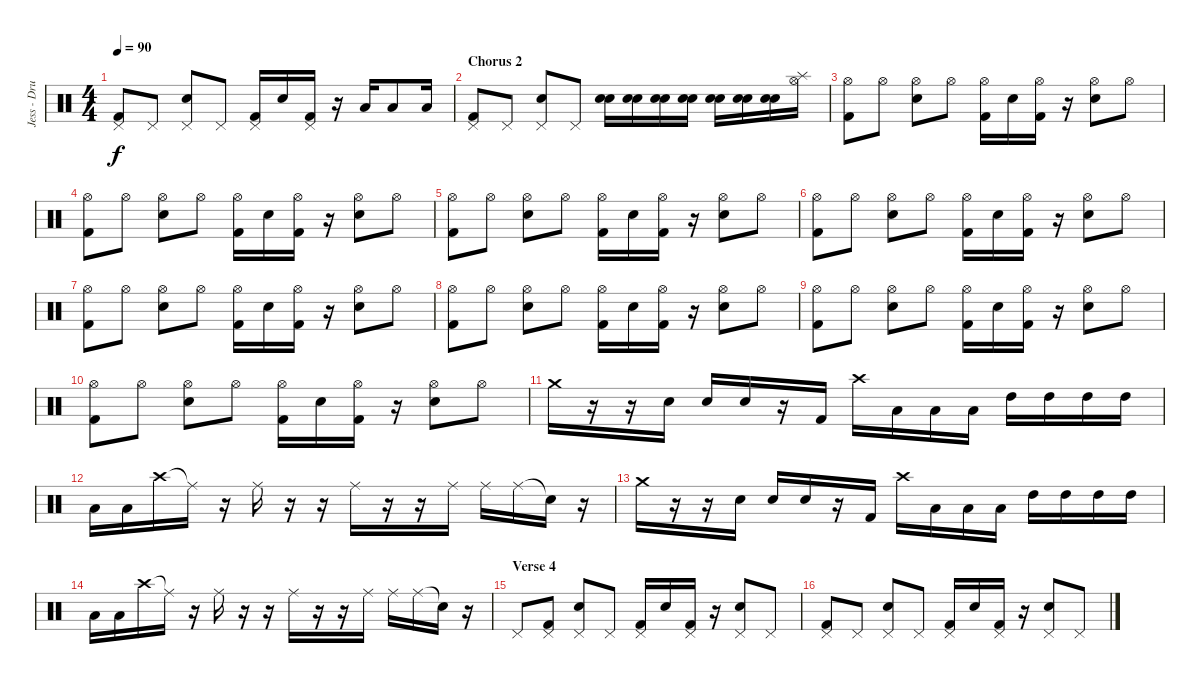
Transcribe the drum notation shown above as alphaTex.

\track ("Jess - Drums" "Jess - Dru") {instrument percussion}
\staff {score}
\articulation defaults
\ts (4 4)
\tempo 90
\clef neutral
\ks c
("Pedal Hi-Hat (hit)" "Kick (hit) 2").8{dy f} "Pedal Hi-Hat (hit)".8 ("Pedal Hi-Hat (hit)" "Electric Snare (hit)").8 "Pedal Hi-Hat (hit)".8 ("Pedal Hi-Hat (hit)" "Kick (hit) 2").16 "Electric Snare (hit)".16 ("Pedal Hi-Hat (hit)" "Kick (hit) 2").16 r.16 "Low Tom (hit)".16 "Low Tom (hit)".8 "Low Floor Tom (hit)".16 |
\section ("" "Chorus 2")
("Pedal Hi-Hat (hit)" "Kick (hit) 2").8 "Pedal Hi-Hat (hit)".8 ("Pedal Hi-Hat (hit)" "Electric Snare (hit)").8 "Pedal Hi-Hat (hit)".8 ("Snare (hit) 2" "Electric Snare (hit)").16 ("Snare (hit) 2" "Electric Snare (hit)").16 ("Snare (hit) 2" "Electric Snare (hit)").16 ("Snare (hit) 2" "Electric Snare (hit)").16 ("Snare (hit) 2" "Electric Snare (hit)").16 ("Snare (hit) 2" "Electric Snare (hit)").16 ("Snare (hit) 2" "Electric Snare (hit)").16 ("Splash (hit)" "Hi-Hat (open)").16 |
("Hi-Hat (open)" "Kick (hit) 2").8{volume 10} "Hi-Hat (open)".8 ("Hi-Hat (open)" "Electric Snare (hit)").8 "Hi-Hat (open)".8 ("Hi-Hat (open)" "Kick (hit) 2").16 "Electric Snare (hit)".16 ("Hi-Hat (open)" "Kick (hit) 2").16 r.16 ("Hi-Hat (open)" "Electric Snare (hit)").8 "Hi-Hat (open)".8 |
("Hi-Hat (open)" "Kick (hit) 2").8 "Hi-Hat (open)".8 ("Hi-Hat (open)" "Electric Snare (hit)").8 "Hi-Hat (open)".8 ("Hi-Hat (open)" "Kick (hit) 2").16 "Electric Snare (hit)".16 ("Hi-Hat (open)" "Kick (hit) 2").16 r.16 ("Hi-Hat (open)" "Electric Snare (hit)").8 "Hi-Hat (open)".8 |
("Hi-Hat (open)" "Kick (hit) 2").8 "Hi-Hat (open)".8 ("Hi-Hat (open)" "Electric Snare (hit)").8 "Hi-Hat (open)".8 ("Hi-Hat (open)" "Kick (hit) 2").16 "Electric Snare (hit)".16 ("Hi-Hat (open)" "Kick (hit) 2").16 r.16 ("Hi-Hat (open)" "Electric Snare (hit)").8 "Hi-Hat (open)".8 |
("Hi-Hat (open)" "Kick (hit) 2").8 "Hi-Hat (open)".8 ("Hi-Hat (open)" "Electric Snare (hit)").8 "Hi-Hat (open)".8 ("Hi-Hat (open)" "Kick (hit) 2").16 "Electric Snare (hit)".16 ("Hi-Hat (open)" "Kick (hit) 2").16 r.16 ("Hi-Hat (open)" "Electric Snare (hit)").8 "Hi-Hat (open)".8 |
("Hi-Hat (open)" "Kick (hit) 2").8 "Hi-Hat (open)".8 ("Hi-Hat (open)" "Electric Snare (hit)").8 "Hi-Hat (open)".8 ("Hi-Hat (open)" "Kick (hit) 2").16 "Electric Snare (hit)".16 ("Hi-Hat (open)" "Kick (hit) 2").16 r.16 ("Hi-Hat (open)" "Electric Snare (hit)").8 "Hi-Hat (open)".8 |
("Hi-Hat (open)" "Kick (hit) 2").8 "Hi-Hat (open)".8 ("Hi-Hat (open)" "Electric Snare (hit)").8 "Hi-Hat (open)".8 ("Hi-Hat (open)" "Kick (hit) 2").16 "Electric Snare (hit)".16 ("Hi-Hat (open)" "Kick (hit) 2").16 r.16 ("Hi-Hat (open)" "Electric Snare (hit)").8 "Hi-Hat (open)".8 |
("Hi-Hat (open)" "Kick (hit) 2").8 "Hi-Hat (open)".8 ("Hi-Hat (open)" "Electric Snare (hit)").8 "Hi-Hat (open)".8 ("Hi-Hat (open)" "Kick (hit) 2").16 "Electric Snare (hit)".16 ("Hi-Hat (open)" "Kick (hit) 2").16 r.16 ("Hi-Hat (open)" "Electric Snare (hit)").8 "Hi-Hat (open)".8 |
("Hi-Hat (open)" "Kick (hit) 2").8 "Hi-Hat (open)".8 ("Hi-Hat (open)" "Electric Snare (hit)").8 "Hi-Hat (open)".8 ("Hi-Hat (open)" "Kick (hit) 2").16 "Electric Snare (hit)".16 ("Hi-Hat (open)" "Kick (hit) 2").16 r.16 ("Hi-Hat (open)" "Electric Snare (hit)").8 "Hi-Hat (open)".8 |
"Crash medium (hit)".16 r.16 r.16 "Electric Snare (hit)".16 "Electric Snare (hit)".16 "Electric Snare (hit)".16 r.16 "Kick (hit) 2".16 "Crash high (hit)".16 "Low Tom (hit)".16 "Low Tom (hit)".16 "Low Tom (hit)".16 "High Tom (hit)".16 "High Tom (hit)".16 "High Tom (hit)".16 "High Tom (hit)".16 |
"Low Tom (hit)".16 "Low Tom (hit)".16 "Crash high (hit)".16 "Ride (middle)"{t}.16 r.16 "Ride (middle)".16 r.16 r.16 "Ride (middle)".16 r.16 r.16 "Ride (middle)".16 "Ride (middle)".16 "Ride (middle)".16 "Snare (hit)"{t}.16 r.16 |
"Crash medium (hit)".16 r.16 r.16 "Electric Snare (hit)".16 "Electric Snare (hit)".16 "Electric Snare (hit)".16 r.16 "Kick (hit) 2".16 "Crash high (hit)".16 "Low Tom (hit)".16 "Low Tom (hit)".16 "Low Tom (hit)".16 "High Tom (hit)".16 "High Tom (hit)".16 "High Tom (hit)".16 "High Tom (hit)".16 |
"Low Tom (hit)".16 "Low Tom (hit)".16 "Crash high (hit)".16 "Ride (middle)"{t}.16 r.16 "Ride (middle)".16 r.16 r.16 "Ride (middle)".16 r.16 r.16 "Ride (middle)".16 "Ride (middle)".16 "Ride (middle)".16 "Snare (hit)"{t}.16 r.16 |
\section ("" "Verse 4")
"Pedal Hi-Hat (hit)".8 ("Pedal Hi-Hat (hit)" "Kick (hit) 2").8 ("Pedal Hi-Hat (hit)" "Electric Snare (hit)").8 "Pedal Hi-Hat (hit)".8 ("Pedal Hi-Hat (hit)" "Kick (hit) 2").16 "Electric Snare (hit)".16 ("Pedal Hi-Hat (hit)" "Kick (hit) 2").16 r.16 ("Pedal Hi-Hat (hit)" "Electric Snare (hit)").8 "Pedal Hi-Hat (hit)".8 |
("Pedal Hi-Hat (hit)" "Kick (hit) 2").8 "Pedal Hi-Hat (hit)".8 ("Pedal Hi-Hat (hit)" "Electric Snare (hit)").8 "Pedal Hi-Hat (hit)".8 ("Pedal Hi-Hat (hit)" "Kick (hit) 2").16 "Electric Snare (hit)".16 ("Pedal Hi-Hat (hit)" "Kick (hit) 2").16 r.16 ("Pedal Hi-Hat (hit)" "Electric Snare (hit)").8 "Pedal Hi-Hat (hit)".8
